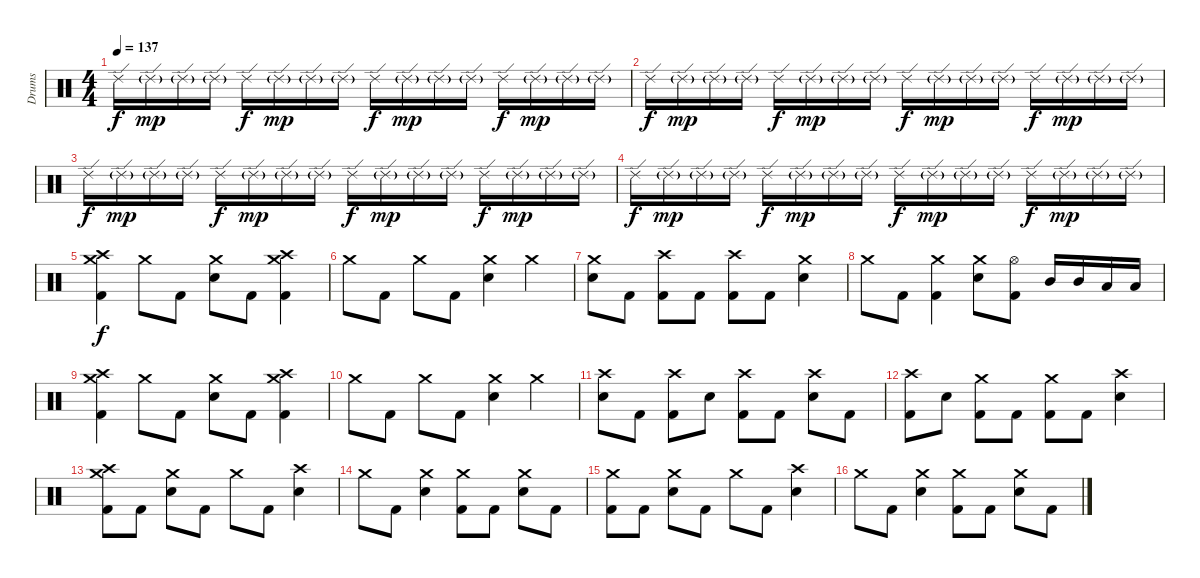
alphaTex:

\track ("Drums" "Drums") {instrument percussion}
\staff {score}
\articulation defaults
\ts (4 4)
\tempo 137
\clef neutral
\ks c "Ride (edge) 2".16{dy f} "Ride (edge) 2"{g}.16{dy mp} "Ride (edge) 2"{g}.16 "Ride (edge) 2"{g}.16 "Ride (edge) 2".16{dy f} "Ride (edge) 2"{g}.16{dy mp} "Ride (edge) 2"{g}.16 "Ride (edge) 2"{g}.16 "Ride (edge) 2".16{dy f} "Ride (edge) 2"{g}.16{dy mp} "Ride (edge) 2"{g}.16 "Ride (edge) 2"{g}.16 "Ride (edge) 2".16{dy f} "Ride (edge) 2"{g}.16{dy mp} "Ride (edge) 2"{g}.16 "Ride (edge) 2"{g}.16
|
"Ride (edge) 2".16{dy f} "Ride (edge) 2"{g}.16{dy mp} "Ride (edge) 2"{g}.16 "Ride (edge) 2"{g}.16 "Ride (edge) 2".16{dy f} "Ride (edge) 2"{g}.16{dy mp} "Ride (edge) 2"{g}.16 "Ride (edge) 2"{g}.16 "Ride (edge) 2".16{dy f} "Ride (edge) 2"{g}.16{dy mp} "Ride (edge) 2"{g}.16 "Ride (edge) 2"{g}.16 "Ride (edge) 2".16{dy f} "Ride (edge) 2"{g}.16{dy mp} "Ride (edge) 2"{g}.16 "Ride (edge) 2"{g}.16 |
"Ride (edge) 2".16{dy f} "Ride (edge) 2"{g}.16{dy mp} "Ride (edge) 2"{g}.16 "Ride (edge) 2"{g}.16 "Ride (edge) 2".16{dy f} "Ride (edge) 2"{g}.16{dy mp} "Ride (edge) 2"{g}.16 "Ride (edge) 2"{g}.16 "Ride (edge) 2".16{dy f} "Ride (edge) 2"{g}.16{dy mp} "Ride (edge) 2"{g}.16 "Ride (edge) 2"{g}.16 "Ride (edge) 2".16{dy f} "Ride (edge) 2"{g}.16{dy mp} "Ride (edge) 2"{g}.16 "Ride (edge) 2"{g}.16 |
"Ride (edge) 2".16{dy f} "Ride (edge) 2"{g}.16{dy mp} "Ride (edge) 2"{g}.16 "Ride (edge) 2"{g}.16 "Ride (edge) 2".16{dy f} "Ride (edge) 2"{g}.16{dy mp} "Ride (edge) 2"{g}.16 "Ride (edge) 2"{g}.16 "Ride (edge) 2".16{dy f} "Ride (edge) 2"{g}.16{dy mp} "Ride (edge) 2"{g}.16 "Ride (edge) 2"{g}.16 "Ride (edge) 2".16{dy f} "Ride (edge) 2"{g}.16{dy mp} "Ride (edge) 2"{g}.16 "Ride (edge) 2"{g}.16 |
("Crash medium (hit)" "Crash high (hit)" "Kick (hit) 2").4{dy f} "Crash medium (hit)".8 "Kick (hit) 2".8 ("Crash medium (hit)" "Electric Snare (hit)").8 "Kick (hit) 2".8 ("Crash medium (hit)" "Crash high (hit)" "Kick (hit) 2").4 |
"Crash medium (hit)".8 "Kick (hit) 2".8 "Crash medium (hit)".8 "Kick (hit) 2".8 ("Crash medium (hit)" "Electric Snare (hit)").4 "Crash medium (hit)".4 |
("Crash medium (hit)" "Electric Snare (hit)").8 "Kick (hit) 2".8 ("Crash high (hit)" "Kick (hit) 2").8 "Kick (hit) 2".8 ("Crash high (hit)" "Kick (hit) 2").8 "Kick (hit) 2".8 ("Crash medium (hit)" "Electric Snare (hit)").4 |
"Crash medium (hit)".8 "Kick (hit) 2".8 ("Crash medium (hit)" "Kick (hit) 2").4 ("Crash medium (hit)" "Electric Snare (hit)").8 ("Hi-Hat (open)" "Kick (hit) 2").8 "Mid Tom (hit)".16 "Mid Tom (hit)".16 "Low Tom (hit)".16 "Low Tom (hit)".16 |
("Crash medium (hit)" "Crash high (hit)" "Kick (hit) 2").4 "Crash medium (hit)".8 "Kick (hit) 2".8 ("Crash medium (hit)" "Electric Snare (hit)").8 "Kick (hit) 2".8 ("Crash medium (hit)" "Crash high (hit)" "Kick (hit) 2").4 |
"Crash medium (hit)".8 "Kick (hit) 2".8 "Crash medium (hit)".8 "Kick (hit) 2".8 ("Crash medium (hit)" "Electric Snare (hit)").4 "Crash medium (hit)".4 |
("Crash high (hit)" "Electric Snare (hit)").8 "Kick (hit) 2".8 ("Crash high (hit)" "Kick (hit) 2").8 "Electric Snare (hit)".8 ("Crash high (hit)" "Kick (hit) 2").8 "Kick (hit) 2".8 ("Crash high (hit)" "Electric Snare (hit)").8 "Kick (hit) 2".8 |
("Crash high (hit)" "Kick (hit) 2").8 "Electric Snare (hit)".8 ("Crash medium (hit)" "Kick (hit) 2").8 "Kick (hit) 2".8 ("Crash medium (hit)" "Kick (hit) 2").8 "Kick (hit) 2".8 ("Crash high (hit)" "Electric Snare (hit)").4 |
("Crash medium (hit)" "Crash high (hit)" "Kick (hit) 2").8 "Kick (hit) 2".8 ("Crash medium (hit)" "Electric Snare (hit)").8 "Kick (hit) 2".8 "Crash medium (hit)".8 "Kick (hit) 2".8 ("Crash high (hit)" "Electric Snare (hit)").4 |
"Crash medium (hit)".8 "Kick (hit) 2".8 ("Crash medium (hit)" "Electric Snare (hit)").4 ("Crash medium (hit)" "Kick (hit) 2").8 "Kick (hit) 2".8 ("Crash medium (hit)" "Electric Snare (hit)").8 "Kick (hit) 2".8 |
("Crash medium (hit)" "Kick (hit) 2").8 "Kick (hit) 2".8 ("Crash medium (hit)" "Electric Snare (hit)").8 "Kick (hit) 2".8 "Crash medium (hit)".8 "Kick (hit) 2".8 ("Crash high (hit)" "Electric Snare (hit)").4 |
"Crash medium (hit)".8 "Kick (hit) 2".8 ("Crash medium (hit)" "Electric Snare (hit)").4 ("Crash medium (hit)" "Kick (hit) 2").8 "Kick (hit) 2".8 ("Crash medium (hit)" "Electric Snare (hit)").8 "Kick (hit) 2".8
